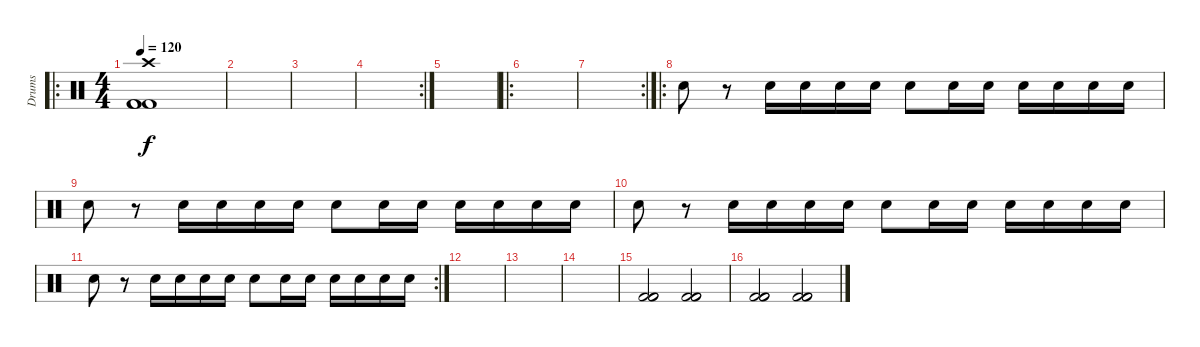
\track ("Drums" "Drums") {instrument percussion}
\staff {score}
\articulation defaults
\ro
\ts (4 4)
\tempo 120
\clef neutral
\ks c
("Crash high (hit)" "Kick (hit) 2" "Kick (hit) 2" "Kick (hit) 2").1{dy f} |
|
|
\rc 2
|
|
\ro
|
\rc 2
|
\ro "Snare (hit) 2".8
r.8 "Snare (hit) 2".16 "Snare (hit) 2".16 "Snare (hit) 2".16 "Snare (hit) 2".16 "Snare (hit) 2".8 "Snare (hit) 2".16 "Snare (hit) 2".16 "Snare (hit) 2".16 "Snare (hit) 2".16 "Snare (hit) 2".16 "Snare (hit) 2".16 |
"Snare (hit) 2".8 r.8 "Snare (hit) 2".16 "Snare (hit) 2".16 "Snare (hit) 2".16 "Snare (hit) 2".16 "Snare (hit) 2".8 "Snare (hit) 2".16 "Snare (hit) 2".16 "Snare (hit) 2".16 "Snare (hit) 2".16 "Snare (hit) 2".16 "Snare (hit) 2".16 |
"Snare (hit) 2".8 r.8 "Snare (hit) 2".16 "Snare (hit) 2".16 "Snare (hit) 2".16 "Snare (hit) 2".16 "Snare (hit) 2".8 "Snare (hit) 2".16 "Snare (hit) 2".16 "Snare (hit) 2".16 "Snare (hit) 2".16 "Snare (hit) 2".16 "Snare (hit) 2".16 |
\rc 2 "Snare (hit) 2".8
r.8 "Snare (hit) 2".16 "Snare (hit) 2".16 "Snare (hit) 2".16 "Snare (hit) 2".16 "Snare (hit) 2".8 "Snare (hit) 2".16 "Snare (hit) 2".16 "Snare (hit) 2".16 "Snare (hit) 2".16 "Snare (hit) 2".16 "Snare (hit) 2".16 |
|
|
|
("Kick (hit) 2" "Kick (hit) 2" "Kick (hit) 2").2 ("Kick (hit) 2" "Kick (hit) 2" "Kick (hit) 2").2 |
("Kick (hit) 2" "Kick (hit) 2" "Kick (hit) 2").2 ("Kick (hit) 2" "Kick (hit) 2" "Kick (hit) 2").2
